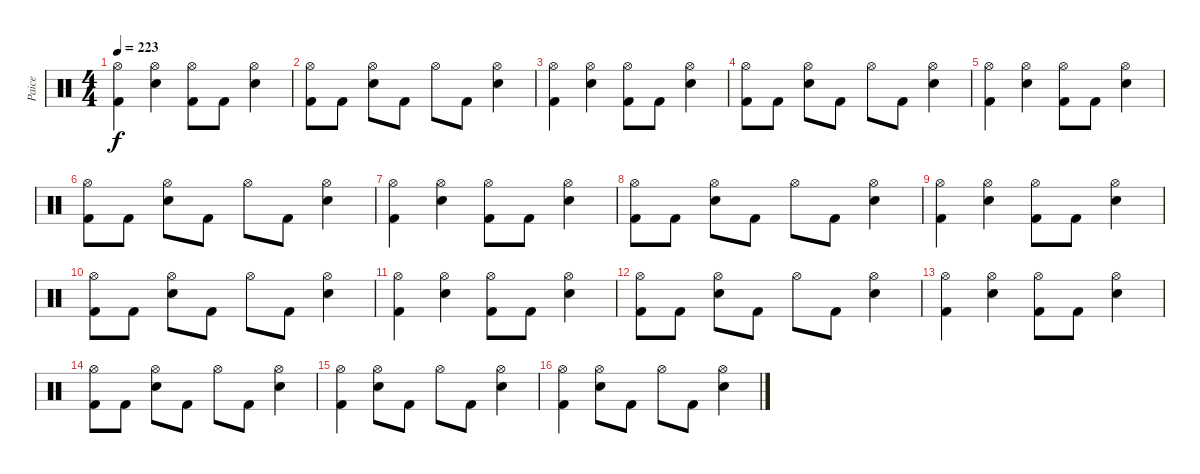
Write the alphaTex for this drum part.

\track ("Paice" "Paice") {instrument percussion}
\staff {score}
\articulation defaults
\ts (4 4)
\tempo 223
\clef neutral
\ks c
("Hi-Hat (open)" "Kick (hit) 2").4{dy f} ("Hi-Hat (open)" "Electric Snare (hit)").4 ("Hi-Hat (open)" "Kick (hit) 2").8 "Kick (hit) 2".8 ("Hi-Hat (open)" "Electric Snare (hit)").4 |
("Hi-Hat (open)" "Kick (hit) 2").8 "Kick (hit) 2".8 ("Hi-Hat (open)" "Electric Snare (hit)").8 "Kick (hit) 2".8 "Hi-Hat (open)".8 "Kick (hit) 2".8 ("Hi-Hat (open)" "Electric Snare (hit)").4 |
("Hi-Hat (open)" "Kick (hit) 2").4 ("Hi-Hat (open)" "Electric Snare (hit)").4 ("Hi-Hat (open)" "Kick (hit) 2").8 "Kick (hit) 2".8 ("Hi-Hat (open)" "Electric Snare (hit)").4 |
("Hi-Hat (open)" "Kick (hit) 2").8 "Kick (hit) 2".8 ("Hi-Hat (open)" "Electric Snare (hit)").8 "Kick (hit) 2".8 "Hi-Hat (open)".8 "Kick (hit) 2".8 ("Hi-Hat (open)" "Electric Snare (hit)").4 |
("Hi-Hat (open)" "Kick (hit) 2").4 ("Hi-Hat (open)" "Electric Snare (hit)").4 ("Hi-Hat (open)" "Kick (hit) 2").8 "Kick (hit) 2".8 ("Hi-Hat (open)" "Electric Snare (hit)").4 |
("Hi-Hat (open)" "Kick (hit) 2").8 "Kick (hit) 2".8 ("Hi-Hat (open)" "Electric Snare (hit)").8 "Kick (hit) 2".8 "Hi-Hat (open)".8 "Kick (hit) 2".8 ("Hi-Hat (open)" "Electric Snare (hit)").4 |
("Hi-Hat (open)" "Kick (hit) 2").4 ("Hi-Hat (open)" "Electric Snare (hit)").4 ("Hi-Hat (open)" "Kick (hit) 2").8 "Kick (hit) 2".8 ("Hi-Hat (open)" "Electric Snare (hit)").4 |
("Hi-Hat (open)" "Kick (hit) 2").8 "Kick (hit) 2".8 ("Hi-Hat (open)" "Electric Snare (hit)").8 "Kick (hit) 2".8 "Hi-Hat (open)".8 "Kick (hit) 2".8 ("Hi-Hat (open)" "Electric Snare (hit)").4 |
("Hi-Hat (open)" "Kick (hit) 2").4 ("Hi-Hat (open)" "Electric Snare (hit)").4 ("Hi-Hat (open)" "Kick (hit) 2").8 "Kick (hit) 2".8 ("Hi-Hat (open)" "Electric Snare (hit)").4 |
("Hi-Hat (open)" "Kick (hit) 2").8 "Kick (hit) 2".8 ("Hi-Hat (open)" "Electric Snare (hit)").8 "Kick (hit) 2".8 "Hi-Hat (open)".8 "Kick (hit) 2".8 ("Hi-Hat (open)" "Electric Snare (hit)").4 |
("Hi-Hat (open)" "Kick (hit) 2").4 ("Hi-Hat (open)" "Electric Snare (hit)").4 ("Hi-Hat (open)" "Kick (hit) 2").8 "Kick (hit) 2".8 ("Hi-Hat (open)" "Electric Snare (hit)").4 |
("Hi-Hat (open)" "Kick (hit) 2").8 "Kick (hit) 2".8 ("Hi-Hat (open)" "Electric Snare (hit)").8 "Kick (hit) 2".8 "Hi-Hat (open)".8 "Kick (hit) 2".8 ("Hi-Hat (open)" "Electric Snare (hit)").4 |
("Hi-Hat (open)" "Kick (hit) 2").4 ("Hi-Hat (open)" "Electric Snare (hit)").4 ("Hi-Hat (open)" "Kick (hit) 2").8 "Kick (hit) 2".8 ("Hi-Hat (open)" "Electric Snare (hit)").4 |
("Hi-Hat (open)" "Kick (hit) 2").8 "Kick (hit) 2".8 ("Hi-Hat (open)" "Electric Snare (hit)").8 "Kick (hit) 2".8 "Hi-Hat (open)".8 "Kick (hit) 2".8 ("Hi-Hat (open)" "Electric Snare (hit)").4 |
("Hi-Hat (open)" "Kick (hit) 2").4 ("Hi-Hat (open)" "Electric Snare (hit)").8 "Kick (hit) 2".8 "Hi-Hat (open)".8 "Kick (hit) 2".8 ("Hi-Hat (open)" "Electric Snare (hit)").4 |
("Hi-Hat (open)" "Kick (hit) 2").4 ("Hi-Hat (open)" "Electric Snare (hit)").8 "Kick (hit) 2".8 "Hi-Hat (open)".8 "Kick (hit) 2".8 ("Hi-Hat (open)" "Electric Snare (hit)").4
